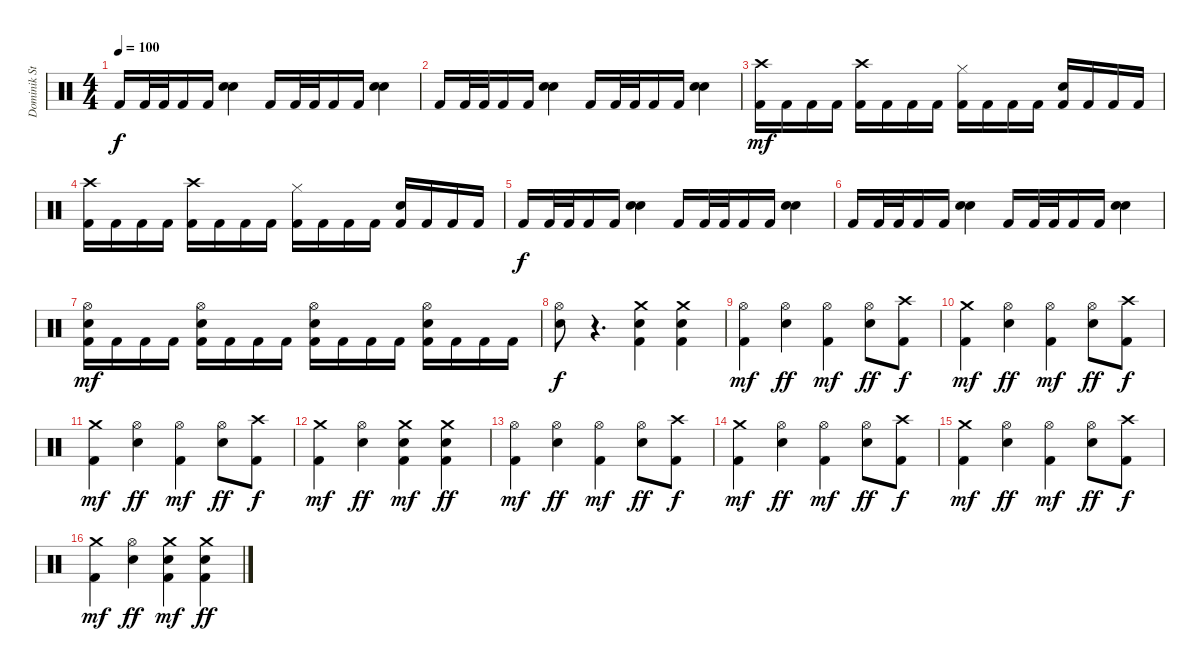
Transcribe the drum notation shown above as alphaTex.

\track ("Dominik Storch" "Dominik St") {instrument percussion}
\staff {score}
\articulation defaults
\ts (4 4)
\tempo 100
\clef neutral
\ks c "Kick (hit) 2".16{dy f} "Kick (hit) 2".32 "Kick (hit) 2".32 "Kick (hit) 2".16 "Kick (hit) 2".16
("Electric Snare (hit)" "Electric Snare (hit)").4{bd 240} "Kick (hit) 2".16 "Kick (hit) 2".32 "Kick (hit) 2".32 "Kick (hit) 2".16 "Kick (hit) 2".16 ("Electric Snare (hit)" "Electric Snare (hit)").4{bd 240} |
"Kick (hit) 2".16 "Kick (hit) 2".32 "Kick (hit) 2".32 "Kick (hit) 2".16 "Kick (hit) 2".16 ("Electric Snare (hit)" "Electric Snare (hit)").4{bd 240} "Kick (hit) 2".16 "Kick (hit) 2".32 "Kick (hit) 2".32 "Kick (hit) 2".16 "Kick (hit) 2".16 ("Electric Snare (hit)" "Electric Snare (hit)").4{bd 240} |
("Crash high (hit)" "Kick (hit) 2").16{dy mf} "Kick (hit) 2".16 "Kick (hit) 2".16 "Kick (hit) 2".16 ("Crash high (hit)" "Kick (hit) 2").16 "Kick (hit) 2".16 "Kick (hit) 2".16 "Kick (hit) 2".16 ("Hi-Hat (closed)" "Kick (hit) 2").16 "Kick (hit) 2".16 "Kick (hit) 2".16 "Kick (hit) 2".16 ("Electric Snare (hit)" "Kick (hit) 2").16 "Kick (hit) 2".16 "Kick (hit) 2".16 "Kick (hit) 2".16 |
("Crash high (hit)" "Kick (hit) 2").16 "Kick (hit) 2".16 "Kick (hit) 2".16 "Kick (hit) 2".16 ("Crash high (hit)" "Kick (hit) 2").16 "Kick (hit) 2".16 "Kick (hit) 2".16 "Kick (hit) 2".16 ("Hi-Hat (closed)" "Kick (hit) 2").16 "Kick (hit) 2".16 "Kick (hit) 2".16 "Kick (hit) 2".16 ("Electric Snare (hit)" "Kick (hit) 2").16 "Kick (hit) 2".16 "Kick (hit) 2".16 "Kick (hit) 2".16 |
"Kick (hit) 2".16{dy f} "Kick (hit) 2".32 "Kick (hit) 2".32 "Kick (hit) 2".16 "Kick (hit) 2".16 ("Electric Snare (hit)" "Electric Snare (hit)").4{bd 240} "Kick (hit) 2".16 "Kick (hit) 2".32 "Kick (hit) 2".32 "Kick (hit) 2".16 "Kick (hit) 2".16 ("Electric Snare (hit)" "Electric Snare (hit)").4{bd 240} |
"Kick (hit) 2".16 "Kick (hit) 2".32 "Kick (hit) 2".32 "Kick (hit) 2".16 "Kick (hit) 2".16 ("Electric Snare (hit)" "Electric Snare (hit)").4{bd 240} "Kick (hit) 2".16 "Kick (hit) 2".32 "Kick (hit) 2".32 "Kick (hit) 2".16 "Kick (hit) 2".16 ("Electric Snare (hit)" "Electric Snare (hit)").4{bd 240} |
("Hi-Hat (open)" "Electric Snare (hit)" "Kick (hit) 2").16{dy mf} "Kick (hit) 2".16 "Kick (hit) 2".16 "Kick (hit) 2".16 ("Hi-Hat (open)" "Electric Snare (hit)" "Kick (hit) 2").16 "Kick (hit) 2".16 "Kick (hit) 2".16 "Kick (hit) 2".16 ("Hi-Hat (open)" "Electric Snare (hit)" "Kick (hit) 2").16 "Kick (hit) 2".16 "Kick (hit) 2".16 "Kick (hit) 2".16 ("Hi-Hat (open)" "Electric Snare (hit)" "Kick (hit) 2").16 "Kick (hit) 2".16 "Kick (hit) 2".16 "Kick (hit) 2".16 |
("Hi-Hat (open)" "Electric Snare (hit)").8{dy f} r.4{d} ("Crash medium (hit)" "Electric Snare (hit)" "Kick (hit) 2").4 ("Crash medium (hit)" "Electric Snare (hit)" "Kick (hit) 2").4 |
("Hi-Hat (open)" "Kick (hit) 2").4{dy mf} ("Hi-Hat (open)" "Electric Snare (hit)").4{dy ff} ("Hi-Hat (open)" "Kick (hit) 2").4{dy mf} ("Hi-Hat (open)" "Electric Snare (hit)").8{dy ff} ("Crash high (hit)" "Kick (hit) 2").8{dy f} |
("Crash medium (hit)" "Kick (hit) 2").4{dy mf} ("Hi-Hat (open)" "Electric Snare (hit)").4{dy ff} ("Hi-Hat (open)" "Kick (hit) 2").4{dy mf} ("Hi-Hat (open)" "Electric Snare (hit)").8{dy ff} ("Crash high (hit)" "Kick (hit) 2").8{dy f} |
("Crash medium (hit)" "Kick (hit) 2").4{dy mf} ("Hi-Hat (open)" "Electric Snare (hit)").4{dy ff} ("Hi-Hat (open)" "Kick (hit) 2").4{dy mf} ("Hi-Hat (open)" "Electric Snare (hit)").8{dy ff} ("Crash high (hit)" "Kick (hit) 2").8{dy f} |
("Crash medium (hit)" "Kick (hit) 2").4{dy mf} ("Hi-Hat (open)" "Electric Snare (hit)").4{dy ff} ("Crash medium (hit)" "Electric Snare (hit)" "Kick (hit) 2").4{dy mf} ("Crash medium (hit)" "Electric Snare (hit)" "Kick (hit) 2").4{dy ff} |
("Hi-Hat (open)" "Kick (hit) 2").4{dy mf} ("Hi-Hat (open)" "Electric Snare (hit)").4{dy ff} ("Hi-Hat (open)" "Kick (hit) 2").4{dy mf} ("Hi-Hat (open)" "Electric Snare (hit)").8{dy ff} ("Crash high (hit)" "Kick (hit) 2").8{dy f} |
("Crash medium (hit)" "Kick (hit) 2").4{dy mf} ("Hi-Hat (open)" "Electric Snare (hit)").4{dy ff} ("Hi-Hat (open)" "Kick (hit) 2").4{dy mf} ("Hi-Hat (open)" "Electric Snare (hit)").8{dy ff} ("Crash high (hit)" "Kick (hit) 2").8{dy f} |
("Crash medium (hit)" "Kick (hit) 2").4{dy mf} ("Hi-Hat (open)" "Electric Snare (hit)").4{dy ff} ("Hi-Hat (open)" "Kick (hit) 2").4{dy mf} ("Hi-Hat (open)" "Electric Snare (hit)").8{dy ff} ("Crash high (hit)" "Kick (hit) 2").8{dy f} |
("Crash medium (hit)" "Kick (hit) 2").4{dy mf} ("Hi-Hat (open)" "Electric Snare (hit)").4{dy ff} ("Crash medium (hit)" "Electric Snare (hit)" "Kick (hit) 2").4{dy mf} ("Crash medium (hit)" "Electric Snare (hit)" "Kick (hit) 2").4{dy ff}
